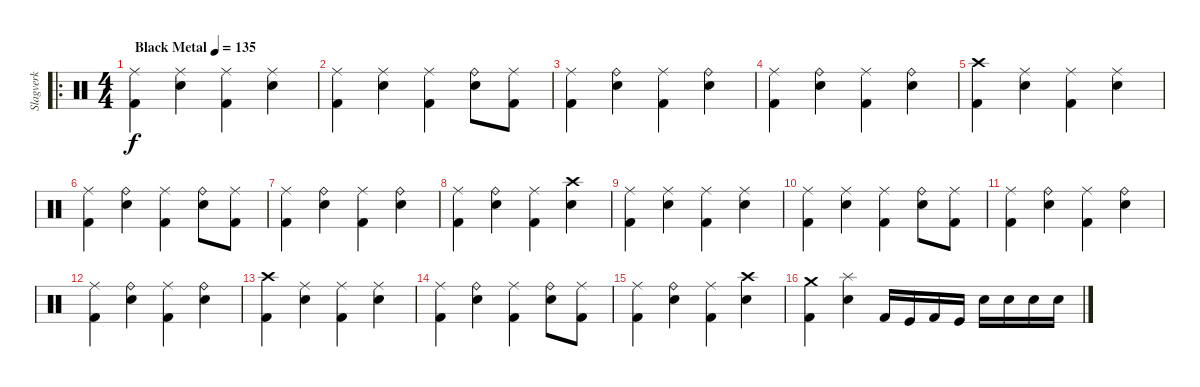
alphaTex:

\track ("Slagverk" "Slagverk") {instrument percussion}
\staff {score}
\articulation defaults
\ro
\ts (4 4)
\tempo (135 "Black Metal")
\clef neutral
\ks c
("Ride (middle)" "Kick (hit) 2").4{dy f} ("Ride (middle)" "Electric Snare (hit)").4 ("Ride (middle)" "Kick (hit) 2").4 ("Ride (middle)" "Electric Snare (hit)").4 |
("Ride (middle)" "Kick (hit) 2").4 ("Ride (middle)" "Electric Snare (hit)").4 ("Ride (middle)" "Kick (hit) 2").4 ("Ride (bell)" "Electric Snare (hit)").8 ("Ride (middle)" "Kick (hit) 2").8 |
("Ride (middle)" "Kick (hit) 2").4 ("Ride (bell)" "Electric Snare (hit)").4 ("Ride (middle)" "Kick (hit) 2").4 ("Ride (bell)" "Electric Snare (hit)").4 |
("Ride (middle)" "Kick (hit) 2").4 ("Ride (bell)" "Electric Snare (hit)").4 ("Ride (middle)" "Kick (hit) 2").4 ("Ride (bell)" "Electric Snare (hit)").4 |
("Crash high (hit)" "Kick (hit) 2").4 ("Ride (middle)" "Electric Snare (hit)").4 ("Ride (middle)" "Kick (hit) 2").4 ("Ride (middle)" "Electric Snare (hit)").4 |
("Ride (middle)" "Kick (hit) 2").4 ("Ride (bell)" "Electric Snare (hit)").4 ("Ride (middle)" "Kick (hit) 2").4 ("Ride (bell)" "Electric Snare (hit)").8 ("Ride (middle)" "Kick (hit) 2").8 |
("Ride (middle)" "Kick (hit) 2").4 ("Ride (bell)" "Electric Snare (hit)").4 ("Ride (middle)" "Kick (hit) 2").4 ("Ride (bell)" "Electric Snare (hit)").4 |
("Ride (middle)" "Kick (hit) 2").4 ("Ride (bell)" "Electric Snare (hit)").4 ("Ride (middle)" "Kick (hit) 2").4 ("Crash high (hit)" "Electric Snare (hit)").4 |
("Ride (middle)" "Kick (hit) 2").4 ("Ride (middle)" "Electric Snare (hit)").4 ("Ride (middle)" "Kick (hit) 2").4 ("Ride (middle)" "Electric Snare (hit)").4 |
("Ride (middle)" "Kick (hit) 2").4 ("Ride (middle)" "Electric Snare (hit)").4 ("Ride (middle)" "Kick (hit) 2").4 ("Ride (bell)" "Electric Snare (hit)").8 ("Ride (middle)" "Kick (hit) 2").8 |
("Ride (middle)" "Kick (hit) 2").4 ("Ride (bell)" "Electric Snare (hit)").4 ("Ride (middle)" "Kick (hit) 2").4 ("Ride (bell)" "Electric Snare (hit)").4 |
("Ride (middle)" "Kick (hit) 2").4 ("Ride (bell)" "Electric Snare (hit)").4 ("Ride (middle)" "Kick (hit) 2").4 ("Ride (bell)" "Electric Snare (hit)").4 |
("Crash high (hit)" "Kick (hit) 2").4 ("Ride (middle)" "Electric Snare (hit)").4 ("Ride (middle)" "Kick (hit) 2").4 ("Ride (middle)" "Electric Snare (hit)").4 |
("Ride (middle)" "Kick (hit) 2").4 ("Ride (bell)" "Electric Snare (hit)").4 ("Ride (middle)" "Kick (hit) 2").4 ("Ride (bell)" "Electric Snare (hit)").8 ("Ride (middle)" "Kick (hit) 2").8 |
("Ride (middle)" "Kick (hit) 2").4 ("Ride (bell)" "Electric Snare (hit)").4 ("Ride (middle)" "Kick (hit) 2").4 ("Crash high (hit)" "Electric Snare (hit)").4 |
("Crash medium (hit)" "Kick (hit) 2").4 ("Splash (hit)" "Electric Snare (hit)").4 "Kick (hit) 2".16 "Kick (hit)".16 "Kick (hit) 2".16 "Kick (hit)".16 "Electric Snare (hit)".16 "Electric Snare (hit)".16 "Electric Snare (hit)".16 "Electric Snare (hit)".16
